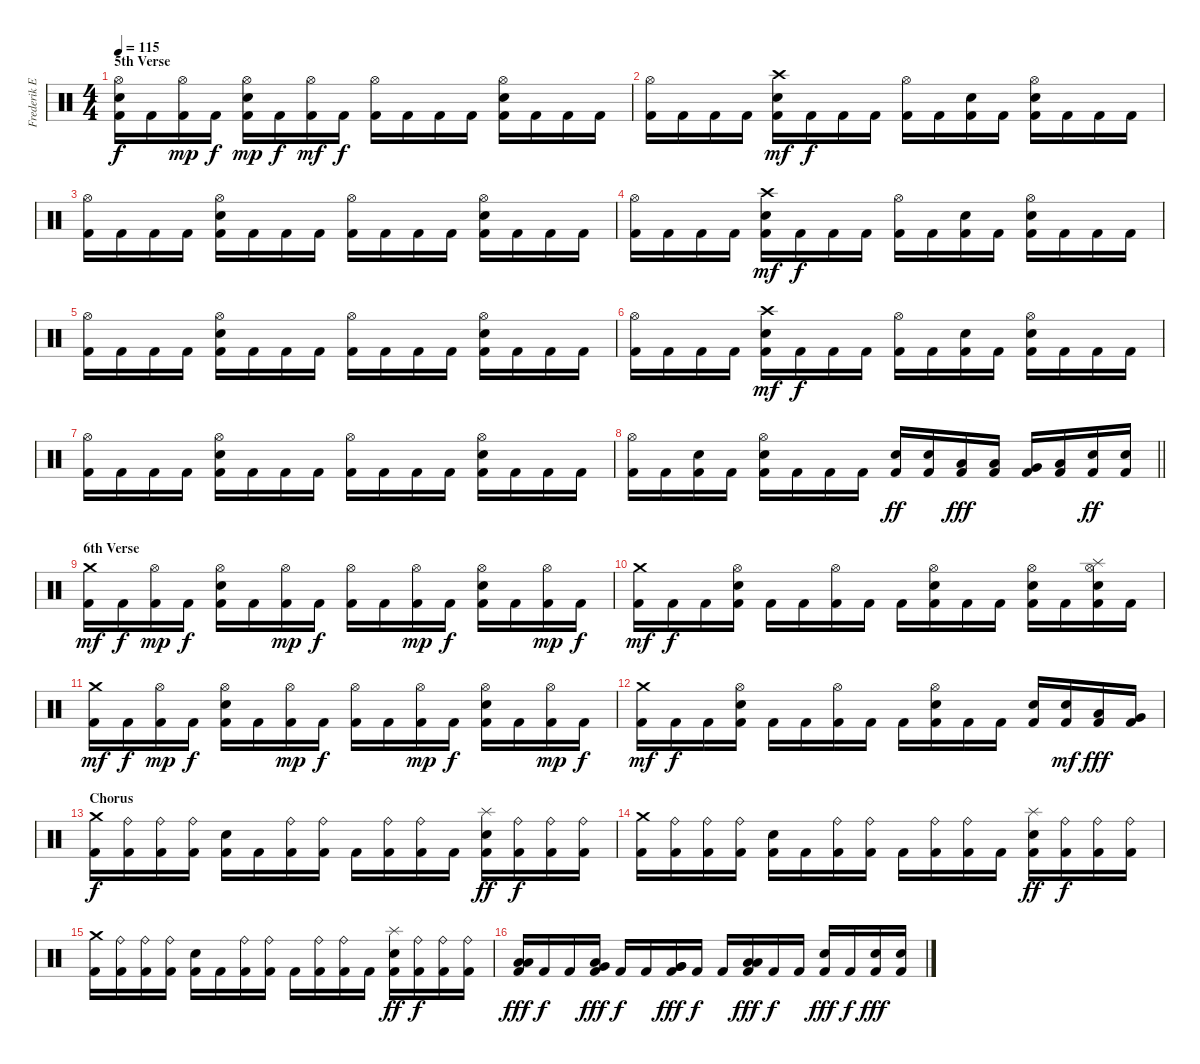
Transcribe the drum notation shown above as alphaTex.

\track ("Frederik Ehmke" "Frederik E") {instrument percussion}
\staff {score}
\articulation defaults
\ts (4 4)
\section ("" "5th Verse")
\tempo 115
\clef neutral
\ks c
("Hi-Hat (open)" "Electric Snare (hit)" "Kick (hit) 2").16{dy f} "Kick (hit) 2".16 ("Hi-Hat (open)" "Kick (hit) 2").16{dy mp} "Kick (hit) 2".16{dy f} ("Hi-Hat (open)" "Electric Snare (hit)" "Kick (hit) 2").16{dy mp} "Kick (hit) 2".16{dy f} ("Hi-Hat (open)" "Kick (hit) 2").16{dy mf} "Kick (hit) 2".16{dy f} ("Hi-Hat (open)" "Kick (hit) 2").16 "Kick (hit) 2".16 "Kick (hit) 2".16 "Kick (hit) 2".16 ("Hi-Hat (open)" "Electric Snare (hit)" "Kick (hit) 2").16 "Kick (hit) 2".16 "Kick (hit) 2".16 "Kick (hit) 2".16 |
("Hi-Hat (open)" "Kick (hit) 2").16 "Kick (hit) 2".16 "Kick (hit) 2".16 "Kick (hit) 2".16 ("Crash high (hit)" "Electric Snare (hit)" "Kick (hit) 2").16{dy mf} "Kick (hit) 2".16{dy f} "Kick (hit) 2".16 "Kick (hit) 2".16 ("Hi-Hat (open)" "Kick (hit) 2").16 "Kick (hit) 2".16 ("Electric Snare (hit)" "Kick (hit) 2").16 "Kick (hit) 2".16 ("Hi-Hat (open)" "Electric Snare (hit)" "Kick (hit) 2").16 "Kick (hit) 2".16 "Kick (hit) 2".16 "Kick (hit) 2".16 |
("Hi-Hat (open)" "Kick (hit) 2").16 "Kick (hit) 2".16 "Kick (hit) 2".16 "Kick (hit) 2".16 ("Hi-Hat (open)" "Electric Snare (hit)" "Kick (hit) 2").16 "Kick (hit) 2".16 "Kick (hit) 2".16 "Kick (hit) 2".16 ("Hi-Hat (open)" "Kick (hit) 2").16 "Kick (hit) 2".16 "Kick (hit) 2".16 "Kick (hit) 2".16 ("Hi-Hat (open)" "Electric Snare (hit)" "Kick (hit) 2").16 "Kick (hit) 2".16 "Kick (hit) 2".16 "Kick (hit) 2".16 |
("Hi-Hat (open)" "Kick (hit) 2").16 "Kick (hit) 2".16 "Kick (hit) 2".16 "Kick (hit) 2".16 ("Crash high (hit)" "Electric Snare (hit)" "Kick (hit) 2").16{dy mf} "Kick (hit) 2".16{dy f} "Kick (hit) 2".16 "Kick (hit) 2".16 ("Hi-Hat (open)" "Kick (hit) 2").16 "Kick (hit) 2".16 ("Electric Snare (hit)" "Kick (hit) 2").16 "Kick (hit) 2".16 ("Hi-Hat (open)" "Electric Snare (hit)" "Kick (hit) 2").16 "Kick (hit) 2".16 "Kick (hit) 2".16 "Kick (hit) 2".16 |
("Hi-Hat (open)" "Kick (hit) 2").16 "Kick (hit) 2".16 "Kick (hit) 2".16 "Kick (hit) 2".16 ("Hi-Hat (open)" "Electric Snare (hit)" "Kick (hit) 2").16 "Kick (hit) 2".16 "Kick (hit) 2".16 "Kick (hit) 2".16 ("Hi-Hat (open)" "Kick (hit) 2").16 "Kick (hit) 2".16 "Kick (hit) 2".16 "Kick (hit) 2".16 ("Hi-Hat (open)" "Electric Snare (hit)" "Kick (hit) 2").16 "Kick (hit) 2".16 "Kick (hit) 2".16 "Kick (hit) 2".16 |
("Hi-Hat (open)" "Kick (hit) 2").16 "Kick (hit) 2".16 "Kick (hit) 2".16 "Kick (hit) 2".16 ("Crash high (hit)" "Electric Snare (hit)" "Kick (hit) 2").16{dy mf} "Kick (hit) 2".16{dy f} "Kick (hit) 2".16 "Kick (hit) 2".16 ("Hi-Hat (open)" "Kick (hit) 2").16 "Kick (hit) 2".16 ("Electric Snare (hit)" "Kick (hit) 2").16 "Kick (hit) 2".16 ("Hi-Hat (open)" "Electric Snare (hit)" "Kick (hit) 2").16 "Kick (hit) 2".16 "Kick (hit) 2".16 "Kick (hit) 2".16 |
("Hi-Hat (open)" "Kick (hit) 2").16 "Kick (hit) 2".16 "Kick (hit) 2".16 "Kick (hit) 2".16 ("Hi-Hat (open)" "Electric Snare (hit)" "Kick (hit) 2").16 "Kick (hit) 2".16 "Kick (hit) 2".16 "Kick (hit) 2".16 ("Hi-Hat (open)" "Kick (hit) 2").16 "Kick (hit) 2".16 "Kick (hit) 2".16 "Kick (hit) 2".16 ("Hi-Hat (open)" "Electric Snare (hit)" "Kick (hit) 2").16 "Kick (hit) 2".16 "Kick (hit) 2".16 "Kick (hit) 2".16 |
\barLineRight lightlight
("Hi-Hat (open)" "Kick (hit) 2").16 "Kick (hit) 2".16 ("Electric Snare (hit)" "Kick (hit) 2").16 "Kick (hit) 2".16 ("Hi-Hat (open)" "Electric Snare (hit)" "Kick (hit) 2").16 "Kick (hit) 2".16 "Kick (hit) 2".16 "Kick (hit) 2".16 ("Electric Snare (hit)" "Kick (hit) 2").16{dy ff} ("Electric Snare (hit)" "Kick (hit) 2").16 ("Low Tom (hit)" "Kick (hit) 2").16{dy fff} ("Low Tom (hit)" "Kick (hit) 2").16 ("Very Low Tom (hit)" "Kick (hit) 2").16 ("Low Floor Tom (hit)" "Kick (hit) 2").16 ("Electric Snare (hit)" "Kick (hit) 2").16{dy ff} ("Electric Snare (hit)" "Kick (hit) 2").16 |
\section ("" "6th Verse")
("Crash medium (hit)" "Kick (hit) 2").16{dy mf} "Kick (hit) 2".16{dy f} ("Hi-Hat (open)" "Kick (hit) 2").16{dy mp} "Kick (hit) 2".16{dy f} ("Hi-Hat (open)" "Electric Snare (hit)" "Kick (hit) 2").16 "Kick (hit) 2".16 ("Hi-Hat (open)" "Kick (hit) 2").16{dy mp} "Kick (hit) 2".16{dy f} ("Hi-Hat (open)" "Kick (hit) 2").16 "Kick (hit) 2".16 ("Hi-Hat (open)" "Kick (hit) 2").16{dy mp} "Kick (hit) 2".16{dy f} ("Hi-Hat (open)" "Electric Snare (hit)" "Kick (hit) 2").16 "Kick (hit) 2".16 ("Hi-Hat (open)" "Kick (hit) 2").16{dy mp} "Kick (hit) 2".16{dy f} |
("Crash medium (hit)" "Kick (hit) 2").16{dy mf} "Kick (hit) 2".16{dy f} "Kick (hit) 2".16 ("Hi-Hat (open)" "Electric Snare (hit)" "Kick (hit) 2").16 "Kick (hit) 2".16 "Kick (hit) 2".16 ("Hi-Hat (open)" "Kick (hit) 2").16 "Kick (hit) 2".16 "Kick (hit) 2".16 ("Hi-Hat (open)" "Electric Snare (hit)" "Kick (hit) 2").16 "Kick (hit) 2".16 "Kick (hit) 2".16 ("Hi-Hat (open)" "Electric Snare (hit)" "Kick (hit) 2").16 "Kick (hit) 2".16 ("Hi-Hat (open)" "Splash (hit)" "Electric Snare (hit)" "Kick (hit) 2").16 "Kick (hit) 2".16 |
("Crash medium (hit)" "Kick (hit) 2").16{dy mf} "Kick (hit) 2".16{dy f} ("Hi-Hat (open)" "Kick (hit) 2").16{dy mp} "Kick (hit) 2".16{dy f} ("Hi-Hat (open)" "Electric Snare (hit)" "Kick (hit) 2").16 "Kick (hit) 2".16 ("Hi-Hat (open)" "Kick (hit) 2").16{dy mp} "Kick (hit) 2".16{dy f} ("Hi-Hat (open)" "Kick (hit) 2").16 "Kick (hit) 2".16 ("Hi-Hat (open)" "Kick (hit) 2").16{dy mp} "Kick (hit) 2".16{dy f} ("Hi-Hat (open)" "Electric Snare (hit)" "Kick (hit) 2").16 "Kick (hit) 2".16 ("Hi-Hat (open)" "Kick (hit) 2").16{dy mp} "Kick (hit) 2".16{dy f} |
("Crash medium (hit)" "Kick (hit) 2").16{dy mf} "Kick (hit) 2".16{dy f} "Kick (hit) 2".16 ("Hi-Hat (open)" "Electric Snare (hit)" "Kick (hit) 2").16 "Kick (hit) 2".16 "Kick (hit) 2".16 ("Hi-Hat (open)" "Kick (hit) 2").16 "Kick (hit) 2".16 "Kick (hit) 2".16 ("Hi-Hat (open)" "Electric Snare (hit)" "Kick (hit) 2").16 "Kick (hit) 2".16 "Kick (hit) 2".16 ("Electric Snare (hit)" "Kick (hit) 2").16 ("Electric Snare (hit)" "Kick (hit) 2").16{dy mf} ("Low Tom (hit)" "Kick (hit) 2").16{dy fff} ("Very Low Tom (hit)" "Kick (hit) 2").16 |
\section ("" "Chorus")
("Crash medium (hit)" "Kick (hit) 2").16{dy f} ("Ride (bell)" "Kick (hit) 2").16 ("Ride (bell)" "Kick (hit) 2").16 ("Ride (bell)" "Kick (hit) 2").16 ("Electric Snare (hit)" "Kick (hit) 2").16 "Kick (hit) 2".16 ("Ride (bell)" "Kick (hit) 2").16 ("Ride (bell)" "Kick (hit) 2").16 "Kick (hit) 2".16 ("Ride (bell)" "Kick (hit) 2").16 ("Ride (bell)" "Kick (hit) 2").16 "Kick (hit) 2".16 ("Splash (hit)" "Electric Snare (hit)" "Kick (hit) 2").16{dy ff} ("Ride (bell)" "Kick (hit) 2").16{dy f} ("Ride (bell)" "Kick (hit) 2").16 ("Ride (bell)" "Kick (hit) 2").16 |
("Crash medium (hit)" "Kick (hit) 2").16 ("Ride (bell)" "Kick (hit) 2").16 ("Ride (bell)" "Kick (hit) 2").16 ("Ride (bell)" "Kick (hit) 2").16 ("Electric Snare (hit)" "Kick (hit) 2").16 "Kick (hit) 2".16 ("Ride (bell)" "Kick (hit) 2").16 ("Ride (bell)" "Kick (hit) 2").16 "Kick (hit) 2".16 ("Ride (bell)" "Kick (hit) 2").16 ("Ride (bell)" "Kick (hit) 2").16 "Kick (hit) 2".16 ("Splash (hit)" "Electric Snare (hit)" "Kick (hit) 2").16{dy ff} ("Ride (bell)" "Kick (hit) 2").16{dy f} ("Ride (bell)" "Kick (hit) 2").16 ("Ride (bell)" "Kick (hit) 2").16 |
("Crash medium (hit)" "Kick (hit) 2").16 ("Ride (bell)" "Kick (hit) 2").16 ("Ride (bell)" "Kick (hit) 2").16 ("Ride (bell)" "Kick (hit) 2").16 ("Electric Snare (hit)" "Kick (hit) 2").16 "Kick (hit) 2".16 ("Ride (bell)" "Kick (hit) 2").16 ("Ride (bell)" "Kick (hit) 2").16 "Kick (hit) 2".16 ("Ride (bell)" "Kick (hit) 2").16 ("Ride (bell)" "Kick (hit) 2").16 "Kick (hit) 2".16 ("Splash (hit)" "Electric Snare (hit)" "Kick (hit) 2").16{dy ff} ("Ride (bell)" "Kick (hit) 2").16{dy f} ("Ride (bell)" "Kick (hit) 2").16 ("Ride (bell)" "Kick (hit) 2").16 |
("Low Tom (hit)" "Low Tom (hit)" "Kick (hit) 2").16{dy fff} "Kick (hit) 2".16{dy f} "Kick (hit) 2".16 ("Low Tom (hit)" "Very Low Tom (hit)" "Kick (hit) 2").16{dy fff} "Kick (hit) 2".16{dy f} "Kick (hit) 2".16 ("Very Low Tom (hit)" "Very Low Tom (hit)" "Kick (hit) 2").16{dy fff} "Kick (hit) 2".16{dy f} "Kick (hit) 2".16 ("Low Floor Tom (hit)" "Low Floor Tom (hit)" "Kick (hit) 2").16{dy fff} "Kick (hit) 2".16{dy f} "Kick (hit) 2".16 ("Electric Snare (hit)" "Kick (hit) 2").16{dy fff} "Kick (hit) 2".16{dy f} ("Electric Snare (hit)" "Kick (hit) 2").16{dy fff} ("Electric Snare (hit)" "Kick (hit) 2").16
